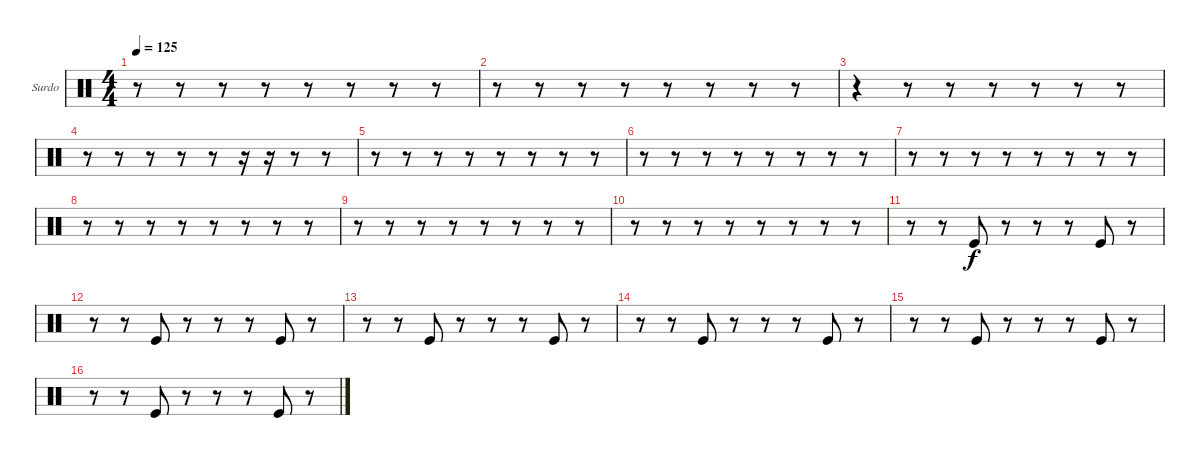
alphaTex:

\bracketExtendMode groupsimilarinstruments
\firstSystemTrackNameOrientation horizontal
\otherSystemsTrackNameOrientation horizontal
\track ("Surdo" "Surdo") {instrument percussion}
\staff {score}
\articulation defaults
\ts (4 4)
\tempo 125
\clef neutral
\ks c
r.8{dy f} r.8 r.8 r.8 r.8 r.8 r.8 r.8 |
r.8 r.8 r.8 r.8 r.8 r.8 r.8 r.8 |
r.4 r.8 r.8 r.8 r.8 r.8 r.8 |
r.8 r.8 r.8 r.8 r.8 r.16 r.16 r.8 r.8 |
r.8 r.8 r.8 r.8 r.8 r.8 r.8 r.8 |
r.8 r.8 r.8 r.8 r.8 r.8 r.8 r.8 |
r.8 r.8 r.8 r.8 r.8 r.8 r.8 r.8 |
r.8 r.8 r.8 r.8 r.8 r.8 r.8 r.8 |
r.8 r.8 r.8 r.8 r.8 r.8 r.8 r.8 |
r.8 r.8 r.8 r.8 r.8 r.8 r.8 r.8 |
r.8 r.8 "Kick (hit)".8 r.8 r.8 r.8 "Kick (hit)".8 r.8 |
r.8 r.8 "Kick (hit)".8 r.8 r.8 r.8 "Kick (hit)".8 r.8 |
r.8 r.8 "Kick (hit)".8 r.8 r.8 r.8 "Kick (hit)".8 r.8 |
r.8 r.8 "Kick (hit)".8 r.8 r.8 r.8 "Kick (hit)".8 r.8 |
r.8 r.8 "Kick (hit)".8 r.8 r.8 r.8 "Kick (hit)".8 r.8 |
r.8 r.8 "Kick (hit)".8 r.8 r.8 r.8 "Kick (hit)".8 r.8
